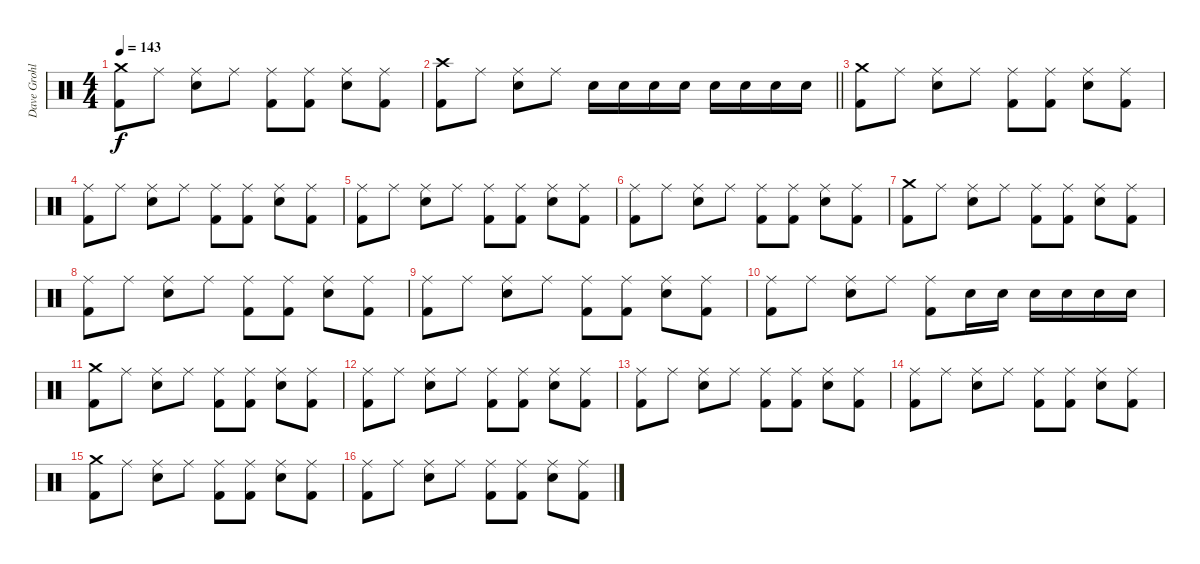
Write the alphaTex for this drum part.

\track ("Dave Grohl" "Dave Grohl") {instrument percussion}
\staff {score}
\articulation defaults
\ts (4 4)
\tempo 143
\clef neutral
\ks c
("Crash medium (hit)" "Kick (hit) 2").8{dy f} "Ride (middle)".8 ("Ride (middle)" "Snare (hit) 2").8 "Ride (middle)".8 ("Ride (middle)" "Kick (hit) 2").8 ("Ride (middle)" "Kick (hit) 2").8 ("Ride (middle)" "Snare (hit) 2").8 ("Ride (middle)" "Kick (hit) 2").8 |
\barLineRight lightlight
("Crash high (hit)" "Kick (hit) 2").8 "Ride (middle)".8 ("Ride (middle)" "Snare (hit) 2").8 "Ride (middle)".8 "Snare (hit) 2".16 "Snare (hit) 2".16 "Snare (hit) 2".16 "Snare (hit) 2".16 "Snare (hit) 2".16 "Snare (hit) 2".16 "Snare (hit) 2".16 "Snare (hit) 2".16 |
("Crash medium (hit)" "Kick (hit) 2").8 "Ride (middle)".8 ("Ride (middle)" "Snare (hit) 2").8 "Ride (middle)".8 ("Ride (middle)" "Kick (hit) 2").8 ("Ride (middle)" "Kick (hit) 2").8 ("Ride (middle)" "Snare (hit) 2").8 ("Ride (middle)" "Kick (hit) 2").8 |
("Ride (middle)" "Kick (hit) 2").8 "Ride (middle)".8 ("Ride (middle)" "Snare (hit) 2").8 "Ride (middle)".8 ("Ride (middle)" "Kick (hit) 2").8 ("Ride (middle)" "Kick (hit) 2").8 ("Ride (middle)" "Snare (hit) 2").8 ("Ride (middle)" "Kick (hit) 2").8 |
("Ride (middle)" "Kick (hit) 2").8 "Ride (middle)".8 ("Ride (middle)" "Snare (hit) 2").8 "Ride (middle)".8 ("Ride (middle)" "Kick (hit) 2").8 ("Ride (middle)" "Kick (hit) 2").8 ("Ride (middle)" "Snare (hit) 2").8 ("Ride (middle)" "Kick (hit) 2").8 |
("Ride (middle)" "Kick (hit) 2").8 "Ride (middle)".8 ("Ride (middle)" "Snare (hit) 2").8 "Ride (middle)".8 ("Ride (middle)" "Kick (hit) 2").8 ("Ride (middle)" "Kick (hit) 2").8 ("Ride (middle)" "Snare (hit) 2").8 ("Ride (middle)" "Kick (hit) 2").8 |
("Crash medium (hit)" "Kick (hit) 2").8 "Ride (middle)".8 ("Ride (middle)" "Snare (hit) 2").8 "Ride (middle)".8 ("Ride (middle)" "Kick (hit) 2").8 ("Ride (middle)" "Kick (hit) 2").8 ("Ride (middle)" "Snare (hit) 2").8 ("Ride (middle)" "Kick (hit) 2").8 |
("Ride (middle)" "Kick (hit) 2").8 "Ride (middle)".8 ("Ride (middle)" "Snare (hit) 2").8 "Ride (middle)".8 ("Ride (middle)" "Kick (hit) 2").8 ("Ride (middle)" "Kick (hit) 2").8 ("Ride (middle)" "Snare (hit) 2").8 ("Ride (middle)" "Kick (hit) 2").8 |
("Ride (middle)" "Kick (hit) 2").8 "Ride (middle)".8 ("Ride (middle)" "Snare (hit) 2").8 "Ride (middle)".8 ("Ride (middle)" "Kick (hit) 2").8 ("Ride (middle)" "Kick (hit) 2").8 ("Ride (middle)" "Snare (hit) 2").8 ("Ride (middle)" "Kick (hit) 2").8 |
("Ride (middle)" "Kick (hit) 2").8 "Ride (middle)".8 ("Ride (middle)" "Snare (hit) 2").8 "Ride (middle)".8 ("Ride (middle)" "Kick (hit) 2").8 "Snare (hit) 2".16 "Snare (hit) 2".16 "Snare (hit) 2".16 "Snare (hit) 2".16 "Snare (hit) 2".16 "Snare (hit) 2".16 |
("Crash medium (hit)" "Kick (hit) 2").8 "Ride (middle)".8 ("Ride (middle)" "Snare (hit) 2").8 "Ride (middle)".8 ("Ride (middle)" "Kick (hit) 2").8 ("Ride (middle)" "Kick (hit) 2").8 ("Ride (middle)" "Snare (hit) 2").8 ("Ride (middle)" "Kick (hit) 2").8 |
("Ride (middle)" "Kick (hit) 2").8 "Ride (middle)".8 ("Ride (middle)" "Snare (hit) 2").8 "Ride (middle)".8 ("Ride (middle)" "Kick (hit) 2").8 ("Ride (middle)" "Kick (hit) 2").8 ("Ride (middle)" "Snare (hit) 2").8 ("Ride (middle)" "Kick (hit) 2").8 |
("Ride (middle)" "Kick (hit) 2").8 "Ride (middle)".8 ("Ride (middle)" "Snare (hit) 2").8 "Ride (middle)".8 ("Ride (middle)" "Kick (hit) 2").8 ("Ride (middle)" "Kick (hit) 2").8 ("Ride (middle)" "Snare (hit) 2").8 ("Ride (middle)" "Kick (hit) 2").8 |
("Ride (middle)" "Kick (hit) 2").8 "Ride (middle)".8 ("Ride (middle)" "Snare (hit) 2").8 "Ride (middle)".8 ("Ride (middle)" "Kick (hit) 2").8 ("Ride (middle)" "Kick (hit) 2").8 ("Ride (middle)" "Snare (hit) 2").8 ("Ride (middle)" "Kick (hit) 2").8 |
("Crash medium (hit)" "Kick (hit) 2").8 "Ride (middle)".8 ("Ride (middle)" "Snare (hit) 2").8 "Ride (middle)".8 ("Ride (middle)" "Kick (hit) 2").8 ("Ride (middle)" "Kick (hit) 2").8 ("Ride (middle)" "Snare (hit) 2").8 ("Ride (middle)" "Kick (hit) 2").8 |
("Ride (middle)" "Kick (hit) 2").8 "Ride (middle)".8 ("Ride (middle)" "Snare (hit) 2").8 "Ride (middle)".8 ("Ride (middle)" "Kick (hit) 2").8 ("Ride (middle)" "Kick (hit) 2").8 ("Ride (middle)" "Snare (hit) 2").8 ("Ride (middle)" "Kick (hit) 2").8
